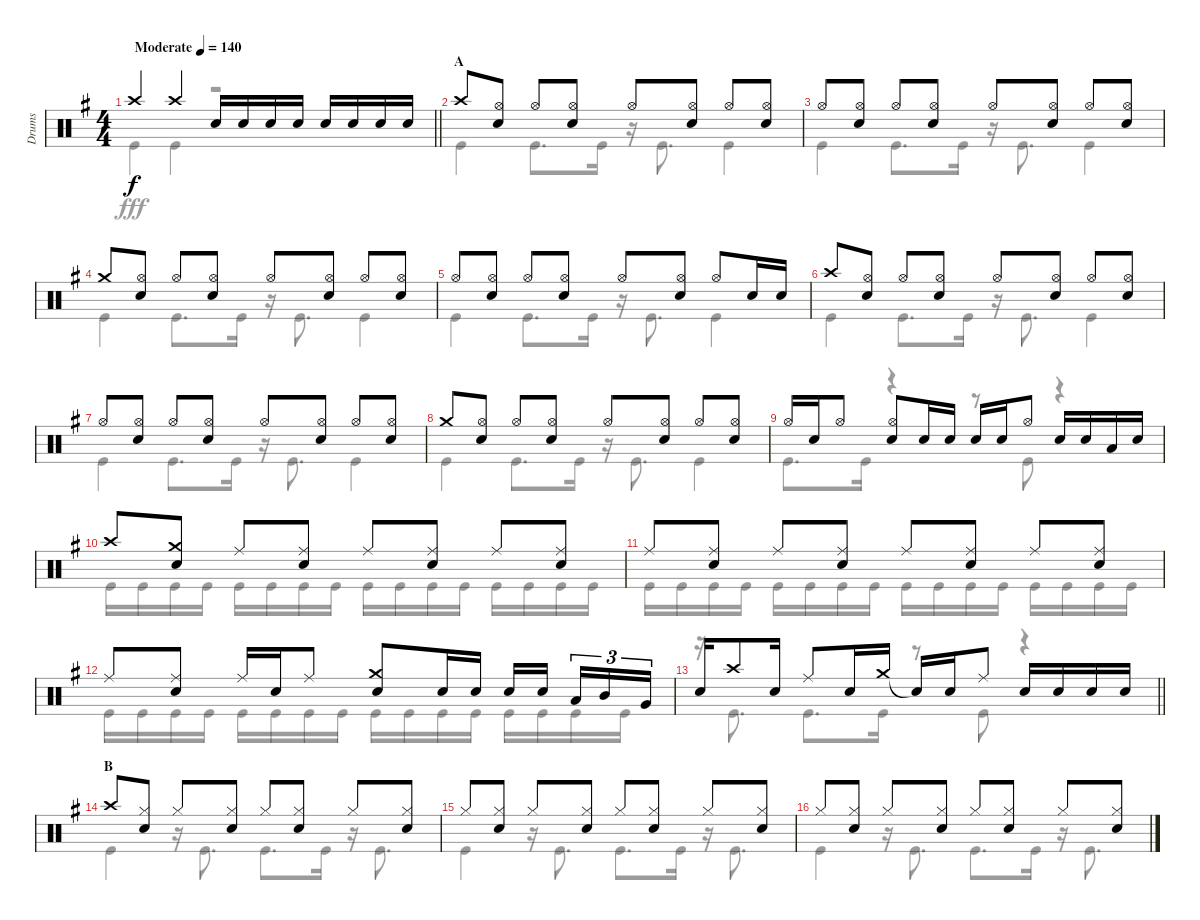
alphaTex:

\track ("Drums" "Drums") {instrument percussion}
\staff {score}
\articulation defaults
\voice
\ts (4 4)
\tempo (140 "Moderate")
\clef neutral
\barLineRight lightlight
\ks g "Crash high (hit)".4{dy f} "Crash high (hit)".4 "Snare (hit) 2".16 "Snare (hit) 2".16 "Snare (hit) 2".16 "Snare (hit) 2".16 "Snare (hit) 2".16 "Snare (hit) 2".16 "Snare (hit) 2".16 "Snare (hit) 2".16
|
\section ("" "A")
"Crash high (hit)".8 ("Hi-Hat (open)" "Snare (hit) 2").8 "Hi-Hat (open)".8 ("Hi-Hat (open)" "Snare (hit) 2").8 "Hi-Hat (open)".8 ("Hi-Hat (open)" "Snare (hit) 2").8 "Hi-Hat (open)".8 ("Hi-Hat (open)" "Snare (hit) 2").8 |
"Hi-Hat (open)".8 ("Hi-Hat (open)" "Snare (hit) 2").8 "Hi-Hat (open)".8 ("Hi-Hat (open)" "Snare (hit) 2").8 "Hi-Hat (open)".8 ("Hi-Hat (open)" "Snare (hit) 2").8 "Hi-Hat (open)".8 ("Hi-Hat (open)" "Snare (hit) 2").8 |
"Crash medium (hit)".8 ("Hi-Hat (open)" "Snare (hit) 2").8 "Hi-Hat (open)".8 ("Hi-Hat (open)" "Snare (hit) 2").8 "Hi-Hat (open)".8 ("Hi-Hat (open)" "Snare (hit) 2").8 "Hi-Hat (open)".8 ("Hi-Hat (open)" "Snare (hit) 2").8 |
"Hi-Hat (open)".8 ("Hi-Hat (open)" "Snare (hit) 2").8 "Hi-Hat (open)".8 ("Hi-Hat (open)" "Snare (hit) 2").8 "Hi-Hat (open)".8 ("Hi-Hat (open)" "Snare (hit) 2").8 "Hi-Hat (open)".8 "Snare (hit) 2".16 "Snare (hit) 2".16 |
"Crash high (hit)".8 ("Hi-Hat (open)" "Snare (hit) 2").8 "Hi-Hat (open)".8 ("Hi-Hat (open)" "Snare (hit) 2").8 "Hi-Hat (open)".8 ("Hi-Hat (open)" "Snare (hit) 2").8 "Hi-Hat (open)".8 ("Hi-Hat (open)" "Snare (hit) 2").8 |
"Hi-Hat (open)".8 ("Hi-Hat (open)" "Snare (hit) 2").8 "Hi-Hat (open)".8 ("Hi-Hat (open)" "Snare (hit) 2").8 "Hi-Hat (open)".8 ("Hi-Hat (open)" "Snare (hit) 2").8 "Hi-Hat (open)".8 ("Hi-Hat (open)" "Snare (hit) 2").8 |
"Crash medium (hit)".8 ("Hi-Hat (open)" "Snare (hit) 2").8 "Hi-Hat (open)".8 ("Hi-Hat (open)" "Snare (hit) 2").8 "Hi-Hat (open)".8 ("Hi-Hat (open)" "Snare (hit) 2").8 "Hi-Hat (open)".8 ("Hi-Hat (open)" "Snare (hit) 2").8 |
"Hi-Hat (open)".16 "Snare (hit) 2".16 "Hi-Hat (open)".8 ("Hi-Hat (open)" "Snare (hit) 2").8 "Snare (hit) 2".16 "Snare (hit) 2".16 "Snare (hit) 2".16 "Snare (hit) 2".16 "Hi-Hat (open)".8 "Snare (hit) 2".16 "Snare (hit) 2".16 "Low Tom (hit)".16 "Snare (hit) 2".16 |
"Crash high (hit)".8 ("Crash medium (hit)" "Snare (hit) 2").8 "Ride (middle)".8 ("Ride (middle)" "Snare (hit) 2").8 "Ride (middle)".8 ("Ride (middle)" "Snare (hit) 2").8 "Ride (middle)".8 ("Ride (middle)" "Snare (hit) 2").8 |
"Ride (middle)".8 ("Ride (middle)" "Snare (hit) 2").8 "Ride (middle)".8 ("Ride (middle)" "Snare (hit) 2").8 "Ride (middle)".8 ("Ride (middle)" "Snare (hit) 2").8 "Ride (middle)".8 ("Ride (middle)" "Snare (hit) 2").8 |
"Ride (middle)".8 ("Ride (middle)" "Snare (hit) 2").8 "Ride (middle)".16 "Snare (hit) 2".16 "Ride (middle)".8 ("Crash medium (hit)" "Snare (hit) 2").8 "Snare (hit) 2".16 "Snare (hit) 2".16 "Snare (hit) 2".16 "Snare (hit) 2".16{beam splitsecondary} "Low Tom (hit)".16{tu (3 2)} "Mid Tom (hit)".16{tu (3 2)} "Very Low Tom (hit)".16{tu (3 2)} |
\barLineRight lightlight "Snare (hit) 2".16 "Crash high (hit)".8 "Snare (hit) 2".16 "Ride (middle)".8 "Snare (hit) 2".16 "Crash medium (hit)".16 "Snare (hit)"{t}.16 "Snare (hit) 2".16 "Ride (middle)".8 "Snare (hit) 2".16 "Snare (hit) 2".16 "Snare (hit) 2".16 "Snare (hit) 2".16
|
\section ("" "B")
"Crash high (hit)".8 ("Hi-Hat (closed)" "Snare (hit) 2").8 "Hi-Hat (closed)".8 ("Hi-Hat (closed)" "Snare (hit) 2").8 "Hi-Hat (closed)".8 ("Hi-Hat (closed)" "Snare (hit) 2").8 "Hi-Hat (closed)".8 ("Hi-Hat (closed)" "Snare (hit) 2").8 |
"Hi-Hat (closed)".8 ("Hi-Hat (closed)" "Snare (hit) 2").8 "Hi-Hat (closed)".8 ("Hi-Hat (closed)" "Snare (hit) 2").8 "Hi-Hat (closed)".8 ("Hi-Hat (closed)" "Snare (hit) 2").8 "Hi-Hat (closed)".8 ("Hi-Hat (closed)" "Snare (hit) 2").8 |
"Hi-Hat (closed)".8 ("Hi-Hat (closed)" "Snare (hit) 2").8 "Hi-Hat (closed)".8 ("Hi-Hat (closed)" "Snare (hit) 2").8 "Hi-Hat (closed)".8 ("Hi-Hat (closed)" "Snare (hit) 2").8 "Hi-Hat (closed)".8 ("Hi-Hat (closed)" "Snare (hit) 2").8
\voice
\clef neutral
\ottava regular
\simile none
\barLineRight lightlight
\ks g "Kick (hit)".4{dy fff} "Kick (hit)".4
r.2 |
"Kick (hit)".4 "Kick (hit)".8{d} "Kick (hit)".16 r.16 "Kick (hit)".8{d} "Kick (hit)".4 |
"Kick (hit)".4 "Kick (hit)".8{d} "Kick (hit)".16 r.16 "Kick (hit)".8{d} "Kick (hit)".4 |
"Kick (hit)".4 "Kick (hit)".8{d} "Kick (hit)".16 r.16 "Kick (hit)".8{d} "Kick (hit)".4 |
"Kick (hit)".4 "Kick (hit)".8{d} "Kick (hit)".16 r.16 "Kick (hit)".8{d} "Kick (hit)".4 |
"Kick (hit)".4 "Kick (hit)".8{d} "Kick (hit)".16 r.16 "Kick (hit)".8{d} "Kick (hit)".4 |
"Kick (hit)".4 "Kick (hit)".8{d} "Kick (hit)".16 r.16 "Kick (hit)".8{d} "Kick (hit)".4 |
"Kick (hit)".4 "Kick (hit)".8{d} "Kick (hit)".16 r.16 "Kick (hit)".8{d} "Kick (hit)".4 |
"Kick (hit)".8{d} "Kick (hit)".16 r.4 r.8 "Kick (hit)".8 r.4 |
"Kick (hit)".16 "Kick (hit)".16 "Kick (hit)".16 "Kick (hit)".16 "Kick (hit)".16 "Kick (hit)".16 "Kick (hit)".16 "Kick (hit)".16 "Kick (hit)".16 "Kick (hit)".16 "Kick (hit)".16 "Kick (hit)".16 "Kick (hit)".16 "Kick (hit)".16 "Kick (hit)".16 "Kick (hit)".16 |
"Kick (hit)".16 "Kick (hit)".16 "Kick (hit)".16 "Kick (hit)".16 "Kick (hit)".16 "Kick (hit)".16 "Kick (hit)".16 "Kick (hit)".16 "Kick (hit)".16 "Kick (hit)".16 "Kick (hit)".16 "Kick (hit)".16 "Kick (hit)".16 "Kick (hit)".16 "Kick (hit)".16 "Kick (hit)".16 |
"Kick (hit)".16 "Kick (hit)".16 "Kick (hit)".16 "Kick (hit)".16 "Kick (hit)".16 "Kick (hit)".16 "Kick (hit)".16 "Kick (hit)".16 "Kick (hit)".16 "Kick (hit)".16 "Kick (hit)".16 "Kick (hit)".16 "Kick (hit)".16 "Kick (hit)".16 "Kick (hit)".16 "Kick (hit)".16 |
\barLineRight lightlight
r.16 "Kick (hit)".8{d} "Kick (hit)".8{d} "Kick (hit)".16 r.8 "Kick (hit)".8 r.4 |
"Kick (hit)".4 r.16 "Kick (hit)".8{d} "Kick (hit)".8{d} "Kick (hit)".16 r.16 "Kick (hit)".8{d} |
"Kick (hit)".4 r.16 "Kick (hit)".8{d} "Kick (hit)".8{d} "Kick (hit)".16 r.16 "Kick (hit)".8{d} |
"Kick (hit)".4 r.16 "Kick (hit)".8{d} "Kick (hit)".8{d} "Kick (hit)".16 r.16 "Kick (hit)".8{d}
